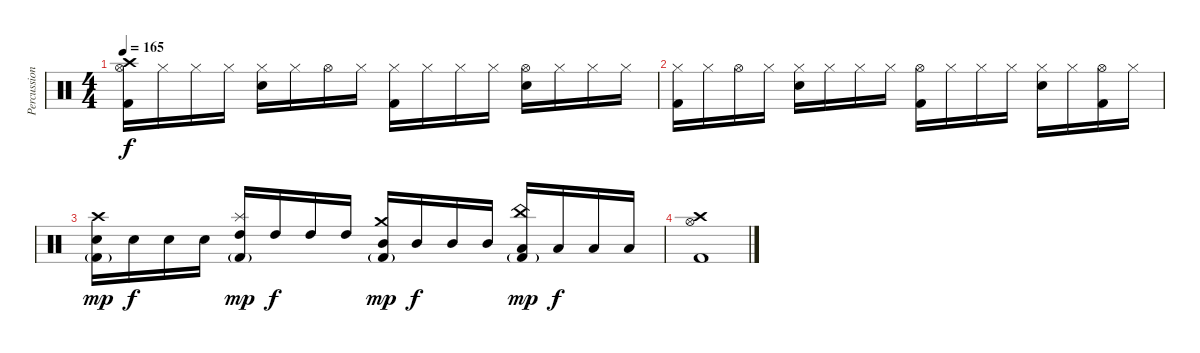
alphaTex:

\track ("Percussions" "Percussion") {instrument percussion}
\staff {score}
\articulation defaults
\ts (4 4)
\tempo 165
\clef neutral
\ks c
("Hi-Hat (open)" "Crash high (hit)" "Kick (hit) 2").16{dy f} "Hi-Hat (closed)".16 "Hi-Hat (closed)".16 "Hi-Hat (closed)".16 ("Hi-Hat (closed)" "Electric Snare (hit)").16 "Hi-Hat (closed)".16 "Hi-Hat (open)".16 "Hi-Hat (closed)".16 ("Hi-Hat (closed)" "Kick (hit) 2").16 "Hi-Hat (closed)".16 "Hi-Hat (closed)".16 "Hi-Hat (closed)".16 ("Hi-Hat (open)" "Electric Snare (hit)").16 "Hi-Hat (closed)".16 "Hi-Hat (closed)".16 "Hi-Hat (closed)".16 |
("Hi-Hat (closed)" "Kick (hit) 2").16 "Hi-Hat (closed)".16 "Hi-Hat (open)".16 "Hi-Hat (closed)".16 ("Hi-Hat (closed)" "Electric Snare (hit)").16 "Hi-Hat (closed)".16 "Hi-Hat (closed)".16 "Hi-Hat (closed)".16 ("Hi-Hat (open)" "Kick (hit) 2").16 "Hi-Hat (closed)".16 "Hi-Hat (closed)".16 "Hi-Hat (closed)".16 ("Hi-Hat (closed)" "Electric Snare (hit)").16 "Hi-Hat (closed)".16 ("Hi-Hat (open)" "Kick (hit) 2").16 "Hi-Hat (closed)".16 |
("Crash high (hit)" "Electric Snare (hit)" "Kick (hit) 2"{g}).16{dy mp} "Electric Snare (hit)".16{dy f} "Electric Snare (hit)".16 "Electric Snare (hit)".16 ("Splash (hit)" "High Tom (hit)" "Kick (hit) 2"{g}).16{dy mp} "High Tom (hit)".16{dy f} "High Tom (hit)".16 "High Tom (hit)".16 ("Crash medium (hit)" "Mid Tom (hit)" "Kick (hit) 2"{g}).16{dy mp} "Mid Tom (hit)".16{dy f} "Mid Tom (hit)".16 "Mid Tom (hit)".16 ("China (hit)" "Low Tom (hit)" "Kick (hit) 2"{g}).16{dy mp} "Low Tom (hit)".16{dy f} "Low Tom (hit)".16 "Low Tom (hit)".16 |
("Crash high (hit)" "Hi-Hat (open)" "Kick (hit) 2").1
